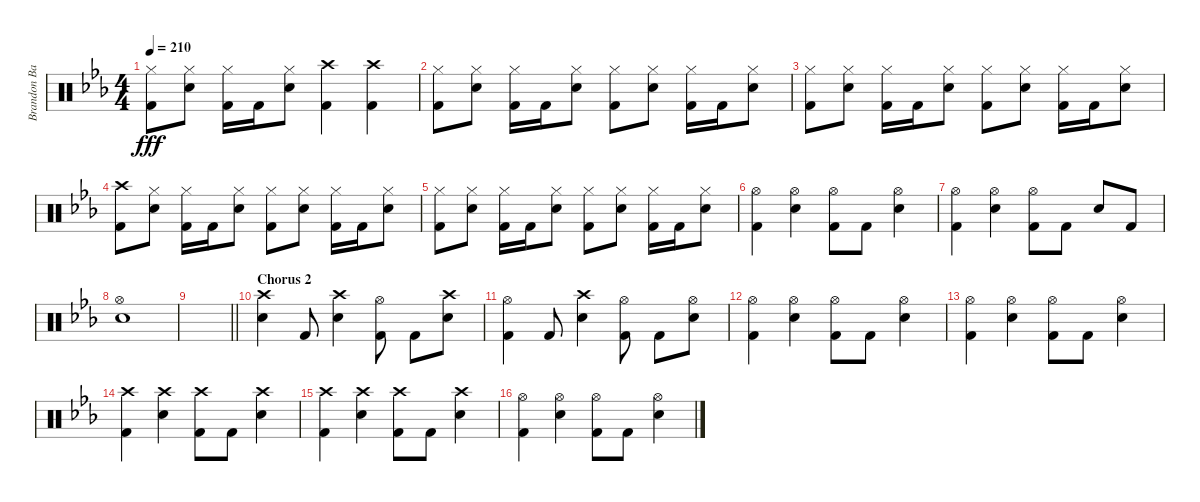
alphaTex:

\track ("Brandon Barnes" "Brandon Ba") {instrument percussion}
\staff {score}
\articulation defaults
\ts (4 4)
\tempo 210
\clef neutral
\ks eb
("Hi-Hat (closed)" "Kick (hit) 2").8{dy fff} ("Hi-Hat (closed)" "Snare (hit) 2").8 ("Hi-Hat (closed)" "Kick (hit) 2").16 "Kick (hit) 2".16 ("Hi-Hat (closed)" "Snare (hit) 2").8 ("Kick (hit) 2" "Crash high (hit)").4 ("Kick (hit) 2" "Crash high (hit)").4 |
("Hi-Hat (closed)" "Kick (hit) 2").8 ("Hi-Hat (closed)" "Snare (hit) 2").8 ("Hi-Hat (closed)" "Kick (hit) 2").16 "Kick (hit) 2".16 ("Hi-Hat (closed)" "Snare (hit) 2").8 ("Hi-Hat (closed)" "Kick (hit) 2").8 ("Hi-Hat (closed)" "Snare (hit) 2").8 ("Hi-Hat (closed)" "Kick (hit) 2").16 "Kick (hit) 2".16 ("Hi-Hat (closed)" "Snare (hit) 2").8 |
("Hi-Hat (closed)" "Kick (hit) 2").8 ("Hi-Hat (closed)" "Snare (hit) 2").8 ("Hi-Hat (closed)" "Kick (hit) 2").16 "Kick (hit) 2".16 ("Hi-Hat (closed)" "Snare (hit) 2").8 ("Hi-Hat (closed)" "Kick (hit) 2").8 ("Hi-Hat (closed)" "Snare (hit) 2").8 ("Hi-Hat (closed)" "Kick (hit) 2").16 "Kick (hit) 2".16 ("Hi-Hat (closed)" "Snare (hit) 2").8 |
("Crash high (hit)" "Kick (hit) 2").8 ("Hi-Hat (closed)" "Snare (hit) 2").8 ("Hi-Hat (closed)" "Kick (hit) 2").16 "Kick (hit) 2".16 ("Hi-Hat (closed)" "Snare (hit) 2").8 ("Hi-Hat (closed)" "Kick (hit) 2").8 ("Hi-Hat (closed)" "Snare (hit) 2").8 ("Hi-Hat (closed)" "Kick (hit) 2").16 "Kick (hit) 2".16 ("Hi-Hat (closed)" "Snare (hit) 2").8 |
("Hi-Hat (closed)" "Kick (hit) 2").8 ("Hi-Hat (closed)" "Snare (hit) 2").8 ("Hi-Hat (closed)" "Kick (hit) 2").16 "Kick (hit) 2".16 ("Hi-Hat (closed)" "Snare (hit) 2").8 ("Hi-Hat (closed)" "Kick (hit) 2").8 ("Hi-Hat (closed)" "Snare (hit) 2").8 ("Hi-Hat (closed)" "Kick (hit) 2").16 "Kick (hit) 2".16 ("Hi-Hat (closed)" "Snare (hit) 2").8 |
("Hi-Hat (open)" "Kick (hit) 2").4 ("Hi-Hat (open)" "Snare (hit) 2").4 ("Hi-Hat (open)" "Kick (hit) 2").8 "Kick (hit) 2".8 ("Hi-Hat (open)" "Snare (hit) 2").4 |
("Hi-Hat (open)" "Kick (hit) 2").4 ("Hi-Hat (open)" "Snare (hit) 2").4 ("Hi-Hat (open)" "Kick (hit) 2").8 "Kick (hit) 2".8 "Snare (hit) 2".8 "Kick (hit) 2".8 |
("Hi-Hat (open)" "Snare (hit) 2").1 |
\barLineRight lightlight
|
\section ("" "Chorus 2")
("Crash high (hit)" "Snare (hit) 2").4 "Kick (hit) 2".8 ("Crash high (hit)" "Snare (hit) 2").4 ("Hi-Hat (open)" "Kick (hit) 2").8 "Kick (hit) 2".8 ("Crash high (hit)" "Snare (hit) 2").8 |
("Hi-Hat (open)" "Kick (hit) 2").4 "Kick (hit) 2".8 ("Crash high (hit)" "Snare (hit) 2").4 ("Hi-Hat (open)" "Kick (hit) 2").8 "Kick (hit) 2".8 ("Hi-Hat (open)" "Snare (hit) 2").8 |
("Hi-Hat (open)" "Kick (hit) 2").4 ("Hi-Hat (open)" "Snare (hit) 2").4 ("Hi-Hat (open)" "Kick (hit) 2").8 "Kick (hit) 2".8 ("Hi-Hat (open)" "Snare (hit) 2").4 |
("Hi-Hat (open)" "Kick (hit) 2").4 ("Hi-Hat (open)" "Snare (hit) 2").4 ("Hi-Hat (open)" "Kick (hit) 2").8 "Kick (hit) 2".8 ("Hi-Hat (open)" "Snare (hit) 2").4 |
("Crash high (hit)" "Kick (hit) 2").4 ("Crash high (hit)" "Snare (hit) 2").4 ("Crash high (hit)" "Kick (hit) 2").8 "Kick (hit) 2".8 ("Crash high (hit)" "Snare (hit) 2").4 |
("Crash high (hit)" "Kick (hit) 2").4 ("Crash high (hit)" "Snare (hit) 2").4 ("Crash high (hit)" "Kick (hit) 2").8 "Kick (hit) 2".8 ("Crash high (hit)" "Snare (hit) 2").4 |
("Hi-Hat (open)" "Kick (hit) 2").4 ("Hi-Hat (open)" "Snare (hit) 2").4 ("Hi-Hat (open)" "Kick (hit) 2").8 "Kick (hit) 2".8 ("Hi-Hat (open)" "Snare (hit) 2").4
